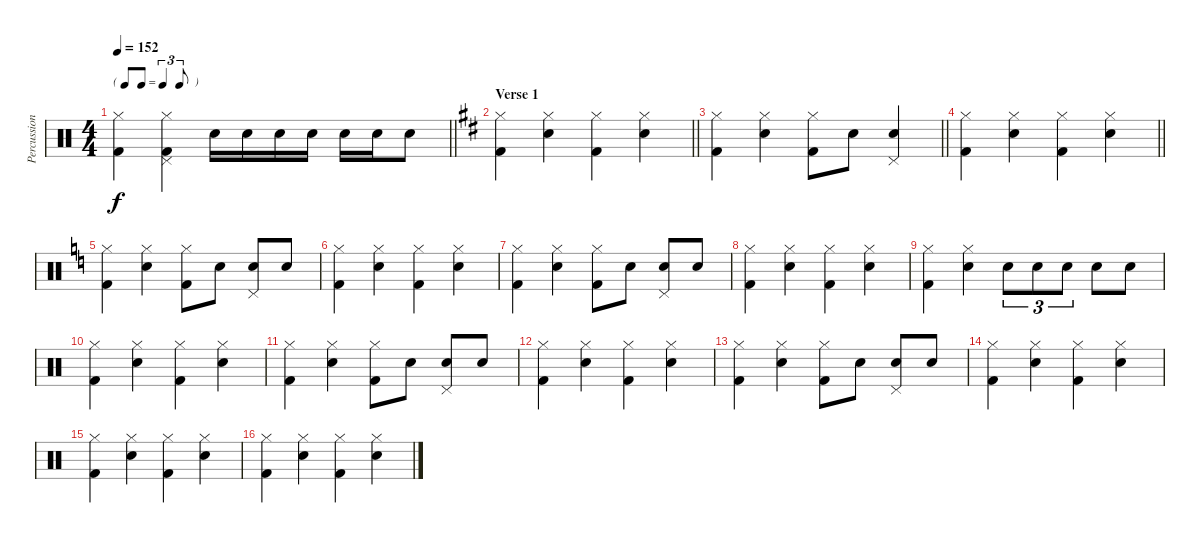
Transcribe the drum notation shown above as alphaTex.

\track ("Percussion" "Percussion") {instrument percussion}
\staff {score}
\articulation defaults
\ts (4 4)
\tf triplet8th
\tempo 152
\clef neutral
\barLineRight lightlight
\ks c
("Hi-Hat (closed)" "Kick (hit) 2").4{dy f} ("Hi-Hat (closed)" "Kick (hit) 2" "Pedal Hi-Hat (hit)").4 "Snare (hit) 2".16 "Snare (hit) 2".16 "Snare (hit) 2".16 "Snare (hit) 2".16 "Snare (hit) 2".16 "Snare (hit) 2".16 "Snare (hit) 2".8 |
\section ("" "Verse 1")
\barLineRight lightlight
\ks d
("Hi-Hat (closed)" "Kick (hit) 2").4 ("Hi-Hat (closed)" "Snare (hit) 2").4 ("Hi-Hat (closed)" "Kick (hit) 2").4 ("Hi-Hat (closed)" "Snare (hit) 2").4 |
\barLineRight lightlight
("Hi-Hat (closed)" "Kick (hit) 2").4 ("Hi-Hat (closed)" "Snare (hit) 2").4 ("Hi-Hat (closed)" "Kick (hit) 2").8 "Snare (hit) 2".8 ("Snare (hit) 2" "Pedal Hi-Hat (hit)").4 |
\barLineRight lightlight
("Hi-Hat (closed)" "Kick (hit) 2").4 ("Hi-Hat (closed)" "Snare (hit) 2").4 ("Hi-Hat (closed)" "Kick (hit) 2").4 ("Hi-Hat (closed)" "Snare (hit) 2").4 |
\ks c
("Hi-Hat (closed)" "Kick (hit) 2").4 ("Hi-Hat (closed)" "Snare (hit) 2").4 ("Hi-Hat (closed)" "Kick (hit) 2").8 "Snare (hit) 2".8 ("Snare (hit) 2" "Pedal Hi-Hat (hit)").8 "Snare (hit) 2".8 |
("Hi-Hat (closed)" "Kick (hit) 2").4 ("Hi-Hat (closed)" "Snare (hit) 2").4 ("Hi-Hat (closed)" "Kick (hit) 2").4 ("Hi-Hat (closed)" "Snare (hit) 2").4 |
("Hi-Hat (closed)" "Kick (hit) 2").4 ("Hi-Hat (closed)" "Snare (hit) 2").4 ("Hi-Hat (closed)" "Kick (hit) 2").8 "Snare (hit) 2".8 ("Snare (hit) 2" "Pedal Hi-Hat (hit)").8 "Snare (hit) 2".8 |
("Hi-Hat (closed)" "Kick (hit) 2").4 ("Hi-Hat (closed)" "Snare (hit) 2").4 ("Hi-Hat (closed)" "Kick (hit) 2").4 ("Hi-Hat (closed)" "Snare (hit) 2").4 |
("Hi-Hat (closed)" "Kick (hit) 2").4 ("Hi-Hat (closed)" "Snare (hit) 2").4 "Snare (hit) 2".8{tu (3 2)} "Snare (hit) 2".8{tu (3 2)} "Snare (hit) 2".8{tu (3 2)} "Snare (hit) 2".8 "Snare (hit) 2".8 |
("Hi-Hat (closed)" "Kick (hit) 2").4 ("Hi-Hat (closed)" "Snare (hit) 2").4 ("Hi-Hat (closed)" "Kick (hit) 2").4 ("Hi-Hat (closed)" "Snare (hit) 2").4 |
("Hi-Hat (closed)" "Kick (hit) 2").4 ("Hi-Hat (closed)" "Snare (hit) 2").4 ("Hi-Hat (closed)" "Kick (hit) 2").8 "Snare (hit) 2".8 ("Snare (hit) 2" "Pedal Hi-Hat (hit)").8 "Snare (hit) 2".8 |
("Hi-Hat (closed)" "Kick (hit) 2").4 ("Hi-Hat (closed)" "Snare (hit) 2").4 ("Hi-Hat (closed)" "Kick (hit) 2").4 ("Hi-Hat (closed)" "Snare (hit) 2").4 |
("Hi-Hat (closed)" "Kick (hit) 2").4 ("Hi-Hat (closed)" "Snare (hit) 2").4 ("Hi-Hat (closed)" "Kick (hit) 2").8 "Snare (hit) 2".8 ("Snare (hit) 2" "Pedal Hi-Hat (hit)").8 "Snare (hit) 2".8 |
("Hi-Hat (closed)" "Kick (hit) 2").4 ("Hi-Hat (closed)" "Snare (hit) 2").4 ("Hi-Hat (closed)" "Kick (hit) 2").4 ("Hi-Hat (closed)" "Snare (hit) 2").4 |
("Hi-Hat (closed)" "Kick (hit) 2").4 ("Hi-Hat (closed)" "Snare (hit) 2").4 ("Hi-Hat (closed)" "Kick (hit) 2").4 ("Hi-Hat (closed)" "Snare (hit) 2").4 |
("Hi-Hat (closed)" "Kick (hit) 2").4 ("Hi-Hat (closed)" "Snare (hit) 2").4 ("Hi-Hat (closed)" "Kick (hit) 2").4 ("Hi-Hat (closed)" "Snare (hit) 2").4
